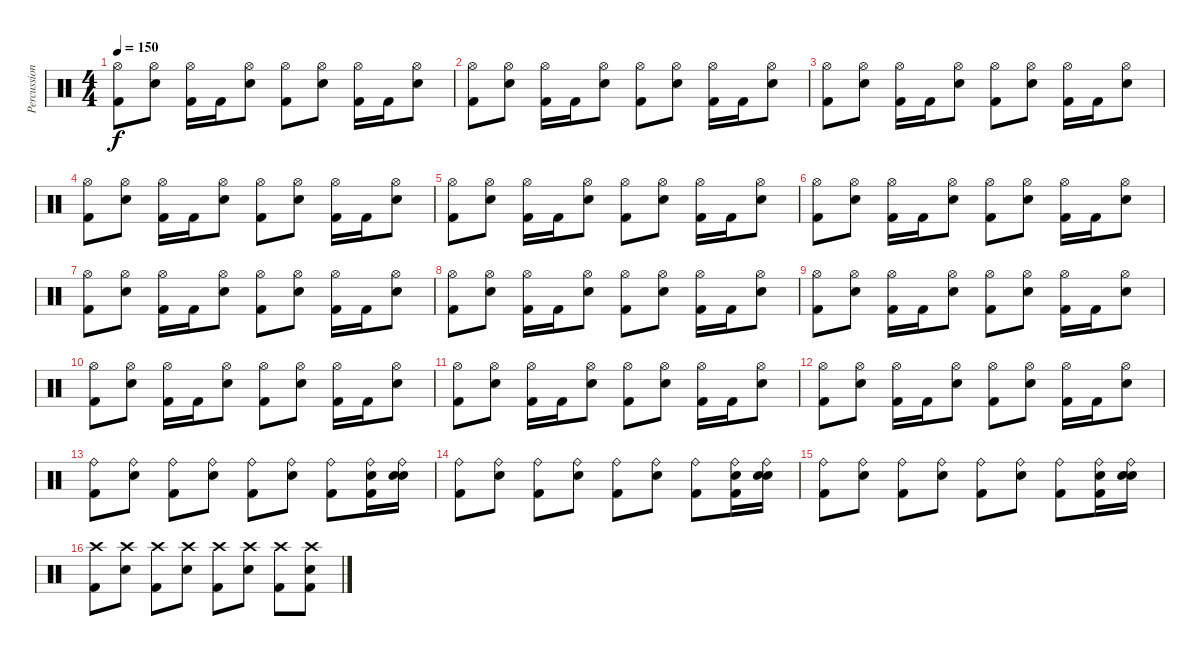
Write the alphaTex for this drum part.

\track ("Percussion" "Percussion") {instrument percussion}
\staff {score}
\articulation defaults
\ts (4 4)
\tempo 150
\clef neutral
\ks c
("Hi-Hat (open)" "Kick (hit) 2").8{dy f} ("Hi-Hat (open)" "Snare (hit) 2").8 ("Hi-Hat (open)" "Kick (hit) 2").16 "Kick (hit) 2".16 ("Hi-Hat (open)" "Snare (hit) 2").8 ("Hi-Hat (open)" "Kick (hit) 2").8 ("Hi-Hat (open)" "Snare (hit) 2").8 ("Hi-Hat (open)" "Kick (hit) 2").16 "Kick (hit) 2".16 ("Hi-Hat (open)" "Snare (hit) 2").8 |
("Hi-Hat (open)" "Kick (hit) 2").8 ("Hi-Hat (open)" "Snare (hit) 2").8 ("Hi-Hat (open)" "Kick (hit) 2").16 "Kick (hit) 2".16 ("Hi-Hat (open)" "Snare (hit) 2").8 ("Hi-Hat (open)" "Kick (hit) 2").8 ("Hi-Hat (open)" "Snare (hit) 2").8 ("Hi-Hat (open)" "Kick (hit) 2").16 "Kick (hit) 2".16 ("Hi-Hat (open)" "Snare (hit) 2").8 |
("Hi-Hat (open)" "Kick (hit) 2").8 ("Hi-Hat (open)" "Snare (hit) 2").8 ("Hi-Hat (open)" "Kick (hit) 2").16 "Kick (hit) 2".16 ("Hi-Hat (open)" "Snare (hit) 2").8 ("Hi-Hat (open)" "Kick (hit) 2").8 ("Hi-Hat (open)" "Snare (hit) 2").8 ("Hi-Hat (open)" "Kick (hit) 2").16 "Kick (hit) 2".16 ("Hi-Hat (open)" "Snare (hit) 2").8 |
("Hi-Hat (open)" "Kick (hit) 2").8 ("Hi-Hat (open)" "Snare (hit) 2").8 ("Hi-Hat (open)" "Kick (hit) 2").16 "Kick (hit) 2".16 ("Hi-Hat (open)" "Snare (hit) 2").8 ("Hi-Hat (open)" "Kick (hit) 2").8 ("Hi-Hat (open)" "Snare (hit) 2").8 ("Hi-Hat (open)" "Kick (hit) 2").16 "Kick (hit) 2".16 ("Hi-Hat (open)" "Snare (hit) 2").8 |
("Hi-Hat (open)" "Kick (hit) 2").8 ("Hi-Hat (open)" "Snare (hit) 2").8 ("Hi-Hat (open)" "Kick (hit) 2").16 "Kick (hit) 2".16 ("Hi-Hat (open)" "Snare (hit) 2").8 ("Hi-Hat (open)" "Kick (hit) 2").8 ("Hi-Hat (open)" "Snare (hit) 2").8 ("Hi-Hat (open)" "Kick (hit) 2").16 "Kick (hit) 2".16 ("Hi-Hat (open)" "Snare (hit) 2").8 |
("Hi-Hat (open)" "Kick (hit) 2").8 ("Hi-Hat (open)" "Snare (hit) 2").8 ("Hi-Hat (open)" "Kick (hit) 2").16 "Kick (hit) 2".16 ("Hi-Hat (open)" "Snare (hit) 2").8 ("Hi-Hat (open)" "Kick (hit) 2").8 ("Hi-Hat (open)" "Snare (hit) 2").8 ("Hi-Hat (open)" "Kick (hit) 2").16 "Kick (hit) 2".16 ("Hi-Hat (open)" "Snare (hit) 2").8 |
("Hi-Hat (open)" "Kick (hit) 2").8 ("Hi-Hat (open)" "Snare (hit) 2").8 ("Hi-Hat (open)" "Kick (hit) 2").16 "Kick (hit) 2".16 ("Hi-Hat (open)" "Snare (hit) 2").8 ("Hi-Hat (open)" "Kick (hit) 2").8 ("Hi-Hat (open)" "Snare (hit) 2").8 ("Hi-Hat (open)" "Kick (hit) 2").16 "Kick (hit) 2".16 ("Hi-Hat (open)" "Snare (hit) 2").8 |
("Hi-Hat (open)" "Kick (hit) 2").8 ("Hi-Hat (open)" "Snare (hit) 2").8 ("Hi-Hat (open)" "Kick (hit) 2").16 "Kick (hit) 2".16 ("Hi-Hat (open)" "Snare (hit) 2").8 ("Hi-Hat (open)" "Kick (hit) 2").8 ("Hi-Hat (open)" "Snare (hit) 2").8 ("Hi-Hat (open)" "Kick (hit) 2").16 "Kick (hit) 2".16 ("Hi-Hat (open)" "Snare (hit) 2").8 |
("Hi-Hat (open)" "Kick (hit) 2").8 ("Hi-Hat (open)" "Snare (hit) 2").8 ("Hi-Hat (open)" "Kick (hit) 2").16 "Kick (hit) 2".16 ("Hi-Hat (open)" "Snare (hit) 2").8 ("Hi-Hat (open)" "Kick (hit) 2").8 ("Hi-Hat (open)" "Snare (hit) 2").8 ("Hi-Hat (open)" "Kick (hit) 2").16 "Kick (hit) 2".16 ("Hi-Hat (open)" "Snare (hit) 2").8 |
("Hi-Hat (open)" "Kick (hit) 2").8 ("Hi-Hat (open)" "Snare (hit) 2").8 ("Hi-Hat (open)" "Kick (hit) 2").16 "Kick (hit) 2".16 ("Hi-Hat (open)" "Snare (hit) 2").8 ("Hi-Hat (open)" "Kick (hit) 2").8 ("Hi-Hat (open)" "Snare (hit) 2").8 ("Hi-Hat (open)" "Kick (hit) 2").16 "Kick (hit) 2".16 ("Hi-Hat (open)" "Snare (hit) 2").8 |
("Hi-Hat (open)" "Kick (hit) 2").8 ("Hi-Hat (open)" "Snare (hit) 2").8 ("Hi-Hat (open)" "Kick (hit) 2").16 "Kick (hit) 2".16 ("Hi-Hat (open)" "Snare (hit) 2").8 ("Hi-Hat (open)" "Kick (hit) 2").8 ("Hi-Hat (open)" "Snare (hit) 2").8 ("Hi-Hat (open)" "Kick (hit) 2").16 "Kick (hit) 2".16 ("Hi-Hat (open)" "Snare (hit) 2").8 |
("Hi-Hat (open)" "Kick (hit) 2").8 ("Hi-Hat (open)" "Snare (hit) 2").8 ("Hi-Hat (open)" "Kick (hit) 2").16 "Kick (hit) 2".16 ("Hi-Hat (open)" "Snare (hit) 2").8 ("Hi-Hat (open)" "Kick (hit) 2").8 ("Hi-Hat (open)" "Snare (hit) 2").8 ("Hi-Hat (open)" "Kick (hit) 2").16 "Kick (hit) 2".16 ("Hi-Hat (open)" "Snare (hit) 2").8 |
("Ride (bell)" "Kick (hit) 2").8 ("Ride (bell)" "Snare (hit) 2").8 ("Ride (bell)" "Kick (hit) 2").8 ("Ride (bell)" "Snare (hit) 2").8 ("Ride (bell)" "Kick (hit) 2").8 ("Ride (bell)" "Snare (hit) 2").8 ("Ride (bell)" "Kick (hit) 2").8 ("Ride (bell)" "Snare (hit) 2" "Kick (hit) 2").16 ("Ride (bell)" "Snare (hit) 2" "Snare (hit) 2").16 |
("Ride (bell)" "Kick (hit) 2").8 ("Ride (bell)" "Snare (hit) 2").8 ("Ride (bell)" "Kick (hit) 2").8 ("Ride (bell)" "Snare (hit) 2").8 ("Ride (bell)" "Kick (hit) 2").8 ("Ride (bell)" "Snare (hit) 2").8 ("Ride (bell)" "Kick (hit) 2").8 ("Ride (bell)" "Snare (hit) 2" "Kick (hit) 2").16 ("Ride (bell)" "Snare (hit) 2" "Snare (hit) 2").16 |
("Ride (bell)" "Kick (hit) 2").8 ("Ride (bell)" "Snare (hit) 2").8 ("Ride (bell)" "Kick (hit) 2").8 ("Ride (bell)" "Snare (hit) 2").8 ("Ride (bell)" "Kick (hit) 2").8 ("Ride (bell)" "Snare (hit) 2").8 ("Ride (bell)" "Kick (hit) 2").8 ("Ride (bell)" "Snare (hit) 2" "Kick (hit) 2").16 ("Ride (bell)" "Snare (hit) 2" "Snare (hit) 2").16 |
("Crash high (hit)" "Kick (hit) 2").8 ("Crash high (hit)" "Snare (hit) 2").8 ("Crash high (hit)" "Kick (hit) 2").8 ("Crash high (hit)" "Snare (hit) 2").8 ("Crash high (hit)" "Kick (hit) 2").8 ("Crash high (hit)" "Snare (hit) 2").8 ("Crash high (hit)" "Kick (hit) 2").8 ("Crash high (hit)" "Snare (hit) 2" "Kick (hit) 2").8
